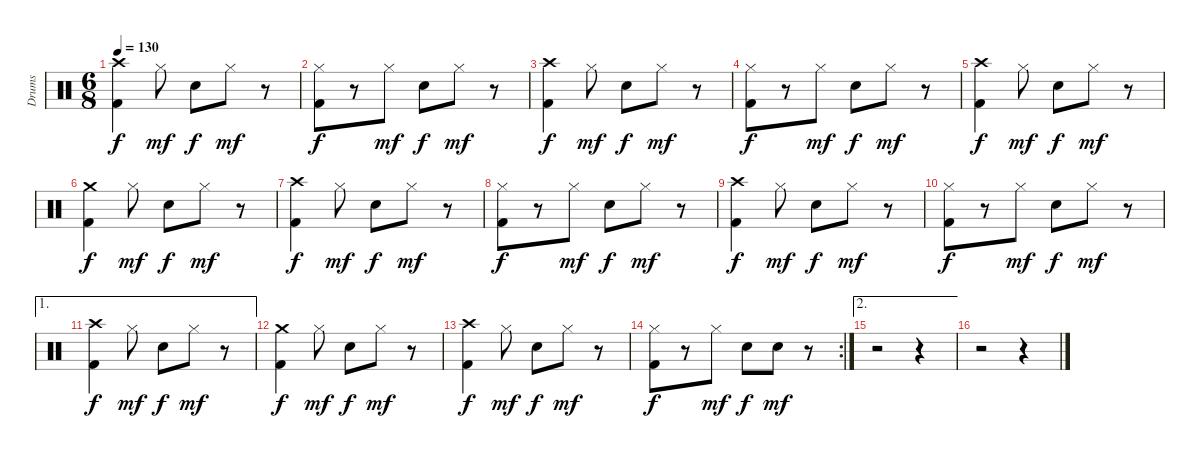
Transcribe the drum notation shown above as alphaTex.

\track ("Drums" "Drums") {instrument percussion}
\staff {score}
\articulation defaults
\ts (6 8)
\tempo 130
\clef neutral
\ks c
("Crash high (hit)" "Kick (hit) 2").4{dy f} "Hi-Hat (closed)".8{dy mf} "Snare (hit) 2".8{dy f} "Hi-Hat (closed)".8{dy mf} r.8 |
("Hi-Hat (closed)" "Kick (hit) 2").8{dy f} r.8 "Hi-Hat (closed)".8{dy mf} "Snare (hit) 2".8{dy f} "Hi-Hat (closed)".8{dy mf} r.8 |
("Crash high (hit)" "Kick (hit) 2").4{dy f} "Hi-Hat (closed)".8{dy mf} "Snare (hit) 2".8{dy f} "Hi-Hat (closed)".8{dy mf} r.8 |
("Hi-Hat (closed)" "Kick (hit) 2").8{dy f} r.8 "Hi-Hat (closed)".8{dy mf} "Snare (hit) 2".8{dy f} "Hi-Hat (closed)".8{dy mf} r.8 |
("Crash high (hit)" "Kick (hit) 2").4{dy f} "Hi-Hat (closed)".8{dy mf} "Snare (hit) 2".8{dy f} "Hi-Hat (closed)".8{dy mf} r.8 |
("Crash medium (hit)" "Kick (hit) 2").4{dy f} "Hi-Hat (closed)".8{dy mf} "Snare (hit) 2".8{dy f} "Hi-Hat (closed)".8{dy mf} r.8 |
("Crash high (hit)" "Kick (hit) 2").4{dy f} "Hi-Hat (closed)".8{dy mf} "Snare (hit) 2".8{dy f} "Hi-Hat (closed)".8{dy mf} r.8 |
("Hi-Hat (closed)" "Kick (hit) 2").8{dy f} r.8 "Hi-Hat (closed)".8{dy mf} "Snare (hit) 2".8{dy f} "Hi-Hat (closed)".8{dy mf} r.8 |
("Crash high (hit)" "Kick (hit) 2").4{dy f} "Hi-Hat (closed)".8{dy mf} "Snare (hit) 2".8{dy f} "Hi-Hat (closed)".8{dy mf} r.8 |
("Hi-Hat (closed)" "Kick (hit) 2").8{dy f} r.8 "Hi-Hat (closed)".8{dy mf} "Snare (hit) 2".8{dy f} "Hi-Hat (closed)".8{dy mf} r.8 |
\ae 1
("Crash high (hit)" "Kick (hit) 2").4{dy f} "Hi-Hat (closed)".8{dy mf} "Snare (hit) 2".8{dy f} "Hi-Hat (closed)".8{dy mf} r.8 |
("Crash medium (hit)" "Kick (hit) 2").4{dy f} "Hi-Hat (closed)".8{dy mf} "Snare (hit) 2".8{dy f} "Hi-Hat (closed)".8{dy mf} r.8 |
("Crash high (hit)" "Kick (hit) 2").4{dy f} "Hi-Hat (closed)".8{dy mf} "Snare (hit) 2".8{dy f} "Hi-Hat (closed)".8{dy mf} r.8 |
\rc 2
("Hi-Hat (closed)" "Kick (hit) 2").8{dy f} r.8 "Hi-Hat (closed)".8{dy mf} "Snare (hit) 2".8{dy f} "Snare (hit) 2".8{dy mf} r.8 |
\ae 2
r.2 r.4 |
r.2 r.4
